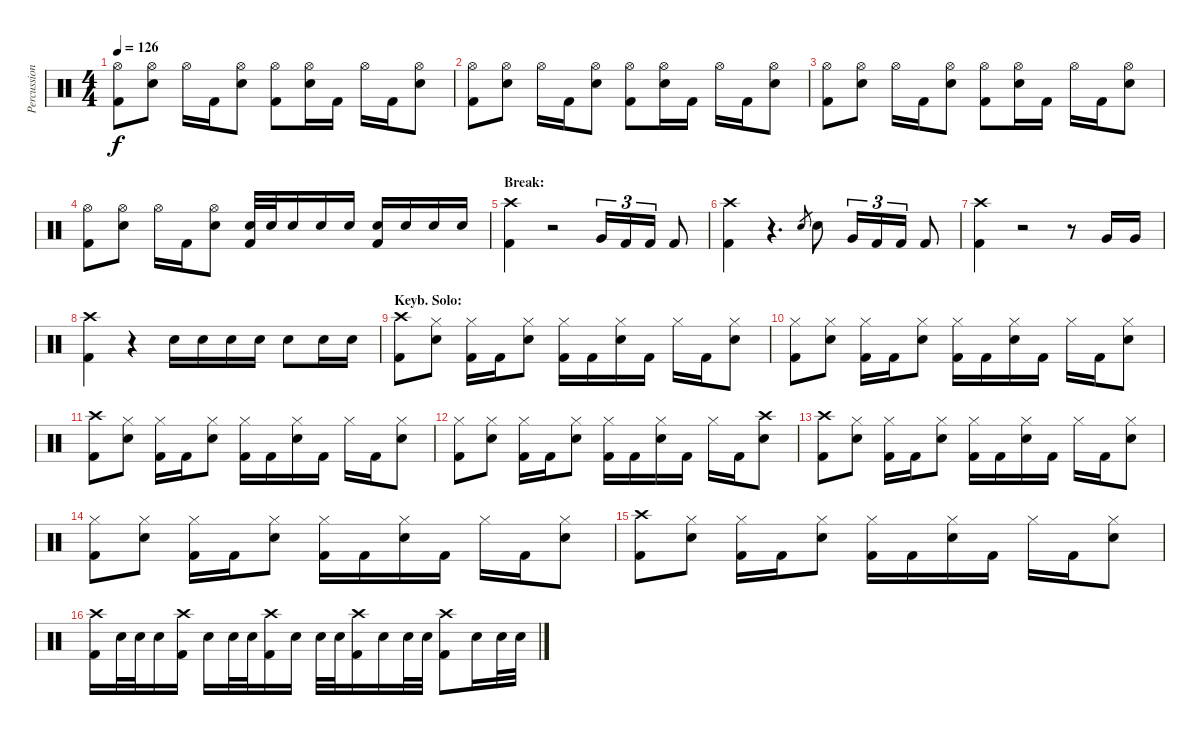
\track ("Percussion" "Percussion") {instrument percussion}
\staff {score}
\articulation defaults
\ts (4 4)
\tempo 126
\clef neutral
\ks c
("Hi-Hat (open)" "Kick (hit) 2").8{dy f} ("Hi-Hat (open)" "Snare (hit) 2").8 "Hi-Hat (open)".16 "Kick (hit) 2".16 ("Hi-Hat (open)" "Snare (hit) 2").8 ("Hi-Hat (open)" "Kick (hit) 2").8 ("Hi-Hat (open)" "Snare (hit) 2").16 "Kick (hit) 2".16 "Hi-Hat (open)".16 "Kick (hit) 2".16 ("Hi-Hat (open)" "Snare (hit) 2").8 |
("Hi-Hat (open)" "Kick (hit) 2").8 ("Hi-Hat (open)" "Snare (hit) 2").8 "Hi-Hat (open)".16 "Kick (hit) 2".16 ("Hi-Hat (open)" "Snare (hit) 2").8 ("Hi-Hat (open)" "Kick (hit) 2").8 ("Hi-Hat (open)" "Snare (hit) 2").16 "Kick (hit) 2".16 "Hi-Hat (open)".16 "Kick (hit) 2".16 ("Hi-Hat (open)" "Snare (hit) 2").8 |
("Hi-Hat (open)" "Kick (hit) 2").8 ("Hi-Hat (open)" "Snare (hit) 2").8 "Hi-Hat (open)".16 "Kick (hit) 2".16 ("Hi-Hat (open)" "Snare (hit) 2").8 ("Hi-Hat (open)" "Kick (hit) 2").8 ("Hi-Hat (open)" "Snare (hit) 2").16 "Kick (hit) 2".16 "Hi-Hat (open)".16 "Kick (hit) 2".16 ("Hi-Hat (open)" "Snare (hit) 2").8 |
("Hi-Hat (open)" "Kick (hit) 2").8 ("Hi-Hat (open)" "Snare (hit) 2").8 "Hi-Hat (open)".16 "Kick (hit) 2".16 ("Hi-Hat (open)" "Snare (hit) 2").8 ("Snare (hit) 2" "Kick (hit) 2").32 "Snare (hit) 2".32 "Snare (hit) 2".16 "Snare (hit) 2".16 "Snare (hit) 2".16 ("Snare (hit) 2" "Kick (hit) 2").16 "Snare (hit) 2".16 "Snare (hit) 2".16 "Snare (hit) 2".16 |
\section ("" "Break:")
("Crash high (hit)" "Kick (hit) 2").4 r.2 "Very Low Tom (hit)".16{tu (3 2)} "Kick (hit) 2".16{tu (3 2)} "Kick (hit) 2".16{tu (3 2)} "Kick (hit) 2".8 |
("Crash high (hit)" "Kick (hit) 2").4 r.4{d} "Snare (hit) 2".8{gr} "Snare (hit) 2".8 "Very Low Tom (hit)".16{tu (3 2)} "Kick (hit) 2".16{tu (3 2)} "Kick (hit) 2".16{tu (3 2)} "Kick (hit) 2".8 |
("Crash high (hit)" "Kick (hit) 2").4 r.2 r.8 "Very Low Tom (hit)".16 "Very Low Tom (hit)".16 |
("Crash high (hit)" "Kick (hit) 2").4 r.4 "Snare (hit) 2".16 "Snare (hit) 2".16 "Snare (hit) 2".16 "Snare (hit) 2".16 "Snare (hit) 2".8 "Snare (hit) 2".16 "Snare (hit) 2".16 |
\section ("" "Keyb. Solo:")
("Crash high (hit)" "Kick (hit) 2").8 ("Hi-Hat (closed)" "Snare (hit) 2").8 ("Hi-Hat (closed)" "Kick (hit) 2").16 "Kick (hit) 2".16 ("Hi-Hat (closed)" "Snare (hit) 2").8 ("Hi-Hat (closed)" "Kick (hit) 2").16 "Kick (hit) 2".16 ("Hi-Hat (closed)" "Snare (hit) 2").16 "Kick (hit) 2".16 "Hi-Hat (closed)".16 "Kick (hit) 2".16 ("Hi-Hat (closed)" "Snare (hit) 2").8 |
("Hi-Hat (closed)" "Kick (hit) 2").8 ("Hi-Hat (closed)" "Snare (hit) 2").8 ("Hi-Hat (closed)" "Kick (hit) 2").16 "Kick (hit) 2".16 ("Hi-Hat (closed)" "Snare (hit) 2").8 ("Hi-Hat (closed)" "Kick (hit) 2").16 "Kick (hit) 2".16 ("Hi-Hat (closed)" "Snare (hit) 2").16 "Kick (hit) 2".16 "Hi-Hat (closed)".16 "Kick (hit) 2".16 ("Hi-Hat (closed)" "Snare (hit) 2").8 |
("Crash high (hit)" "Kick (hit) 2").8 ("Hi-Hat (closed)" "Snare (hit) 2").8 ("Hi-Hat (closed)" "Kick (hit) 2").16 "Kick (hit) 2".16 ("Hi-Hat (closed)" "Snare (hit) 2").8 ("Hi-Hat (closed)" "Kick (hit) 2").16 "Kick (hit) 2".16 ("Hi-Hat (closed)" "Snare (hit) 2").16 "Kick (hit) 2".16 "Hi-Hat (closed)".16 "Kick (hit) 2".16 ("Hi-Hat (closed)" "Snare (hit) 2").8 |
("Hi-Hat (closed)" "Kick (hit) 2").8 ("Hi-Hat (closed)" "Snare (hit) 2").8 ("Hi-Hat (closed)" "Kick (hit) 2").16 "Kick (hit) 2".16 ("Hi-Hat (closed)" "Snare (hit) 2").8 ("Hi-Hat (closed)" "Kick (hit) 2").16 "Kick (hit) 2".16 ("Hi-Hat (closed)" "Snare (hit) 2").16 "Kick (hit) 2".16 "Hi-Hat (closed)".16 "Kick (hit) 2".16 ("Crash high (hit)" "Snare (hit) 2").8 |
("Crash high (hit)" "Kick (hit) 2").8 ("Hi-Hat (closed)" "Snare (hit) 2").8 ("Hi-Hat (closed)" "Kick (hit) 2").16 "Kick (hit) 2".16 ("Hi-Hat (closed)" "Snare (hit) 2").8 ("Hi-Hat (closed)" "Kick (hit) 2").16 "Kick (hit) 2".16 ("Hi-Hat (closed)" "Snare (hit) 2").16 "Kick (hit) 2".16 "Hi-Hat (closed)".16 "Kick (hit) 2".16 ("Hi-Hat (closed)" "Snare (hit) 2").8 |
("Hi-Hat (closed)" "Kick (hit) 2").8 ("Hi-Hat (closed)" "Snare (hit) 2").8 ("Hi-Hat (closed)" "Kick (hit) 2").16 "Kick (hit) 2".16 ("Hi-Hat (closed)" "Snare (hit) 2").8 ("Hi-Hat (closed)" "Kick (hit) 2").16 "Kick (hit) 2".16 ("Hi-Hat (closed)" "Snare (hit) 2").16 "Kick (hit) 2".16 "Hi-Hat (closed)".16 "Kick (hit) 2".16 ("Hi-Hat (closed)" "Snare (hit) 2").8 |
("Crash high (hit)" "Kick (hit) 2").8 ("Hi-Hat (closed)" "Snare (hit) 2").8 ("Hi-Hat (closed)" "Kick (hit) 2").16 "Kick (hit) 2".16 ("Hi-Hat (closed)" "Snare (hit) 2").8 ("Hi-Hat (closed)" "Kick (hit) 2").16 "Kick (hit) 2".16 ("Hi-Hat (closed)" "Snare (hit) 2").16 "Kick (hit) 2".16 "Hi-Hat (closed)".16 "Kick (hit) 2".16 ("Hi-Hat (closed)" "Snare (hit) 2").8 |
("Crash high (hit)" "Kick (hit) 2").16 "Snare (hit) 2".32 "Snare (hit) 2".32 "Snare (hit) 2".16 ("Crash high (hit)" "Kick (hit) 2").16 "Snare (hit) 2".16 "Snare (hit) 2".32 "Snare (hit) 2".32 ("Crash high (hit)" "Kick (hit) 2").16 "Snare (hit) 2".16 "Snare (hit) 2".32 "Snare (hit) 2".32 ("Crash high (hit)" "Kick (hit) 2").16 "Snare (hit) 2".16 "Snare (hit) 2".32 "Snare (hit) 2".32 ("Crash high (hit)" "Kick (hit) 2").8 "Snare (hit) 2".16 "Snare (hit) 2".32 "Snare (hit) 2".32
